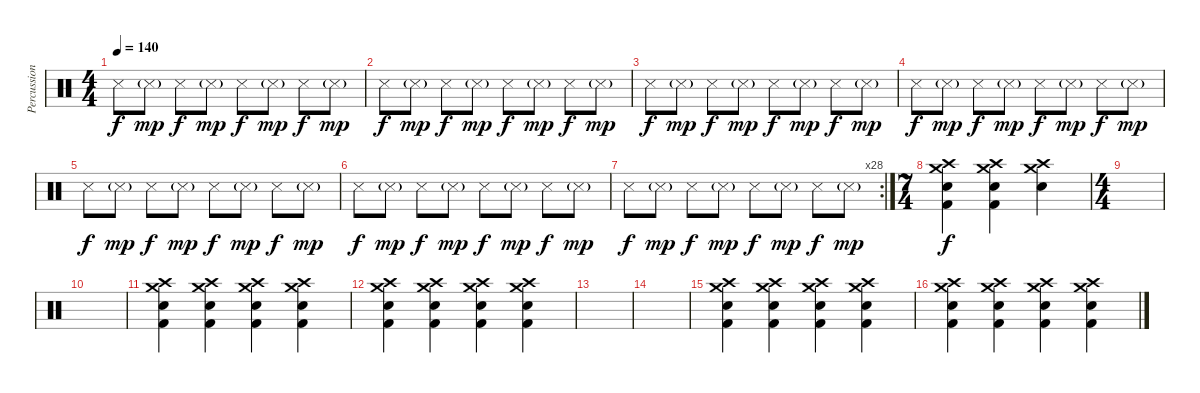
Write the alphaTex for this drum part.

\track ("Percussion" "Percussion") {instrument percussion}
\staff {score}
\articulation defaults
\ts (4 4)
\tempo 140
\clef neutral
\ks c "Snare (side stick) 3".8{dy f} "Snare (side stick) 3"{g}.8{dy mp} "Snare (side stick) 3".8{dy f} "Snare (side stick) 3"{g}.8{dy mp} "Snare (side stick) 3".8{dy f} "Snare (side stick) 3"{g}.8{dy mp} "Snare (side stick) 3".8{dy f} "Snare (side stick) 3"{g}.8{dy mp}
|
"Snare (side stick) 3".8{dy f} "Snare (side stick) 3"{g}.8{dy mp} "Snare (side stick) 3".8{dy f} "Snare (side stick) 3"{g}.8{dy mp} "Snare (side stick) 3".8{dy f} "Snare (side stick) 3"{g}.8{dy mp} "Snare (side stick) 3".8{dy f} "Snare (side stick) 3"{g}.8{dy mp} |
"Snare (side stick) 3".8{dy f} "Snare (side stick) 3"{g}.8{dy mp} "Snare (side stick) 3".8{dy f} "Snare (side stick) 3"{g}.8{dy mp} "Snare (side stick) 3".8{dy f} "Snare (side stick) 3"{g}.8{dy mp} "Snare (side stick) 3".8{dy f} "Snare (side stick) 3"{g}.8{dy mp} |
"Snare (side stick) 3".8{dy f} "Snare (side stick) 3"{g}.8{dy mp} "Snare (side stick) 3".8{dy f} "Snare (side stick) 3"{g}.8{dy mp} "Snare (side stick) 3".8{dy f} "Snare (side stick) 3"{g}.8{dy mp} "Snare (side stick) 3".8{dy f} "Snare (side stick) 3"{g}.8{dy mp} |
"Snare (side stick) 3".8{dy f} "Snare (side stick) 3"{g}.8{dy mp} "Snare (side stick) 3".8{dy f} "Snare (side stick) 3"{g}.8{dy mp} "Snare (side stick) 3".8{dy f} "Snare (side stick) 3"{g}.8{dy mp} "Snare (side stick) 3".8{dy f} "Snare (side stick) 3"{g}.8{dy mp} |
"Snare (side stick) 3".8{dy f} "Snare (side stick) 3"{g}.8{dy mp} "Snare (side stick) 3".8{dy f} "Snare (side stick) 3"{g}.8{dy mp} "Snare (side stick) 3".8{dy f} "Snare (side stick) 3"{g}.8{dy mp} "Snare (side stick) 3".8{dy f} "Snare (side stick) 3"{g}.8{dy mp} |
\rc 28 "Snare (side stick) 3".8{dy f} "Snare (side stick) 3"{g}.8{dy mp} "Snare (side stick) 3".8{dy f} "Snare (side stick) 3"{g}.8{dy mp} "Snare (side stick) 3".8{dy f} "Snare (side stick) 3"{g}.8{dy mp} "Snare (side stick) 3".8{dy f} "Snare (side stick) 3"{g}.8{dy mp}
|
\ts (7 4)
("Crash medium (hit)" "Crash high (hit)" "Electric Snare (hit)" "Kick (hit) 2").4{dy f} ("Crash medium (hit)" "Crash high (hit)" "Electric Snare (hit)" "Kick (hit) 2").4 ("Crash medium (hit)" "Crash high (hit)" "Electric Snare (hit)").4 |
\ts (4 4)
|
|
("Crash medium (hit)" "Crash high (hit)" "Electric Snare (hit)" "Kick (hit) 2").4 ("Crash medium (hit)" "Crash high (hit)" "Electric Snare (hit)" "Kick (hit) 2").4 ("Crash medium (hit)" "Crash high (hit)" "Electric Snare (hit)" "Kick (hit) 2").4 ("Crash medium (hit)" "Crash high (hit)" "Electric Snare (hit)" "Kick (hit) 2").4 |
("Crash medium (hit)" "Crash high (hit)" "Electric Snare (hit)" "Kick (hit) 2").4 ("Crash medium (hit)" "Crash high (hit)" "Electric Snare (hit)" "Kick (hit) 2").4 ("Crash medium (hit)" "Crash high (hit)" "Electric Snare (hit)" "Kick (hit) 2").4 ("Crash medium (hit)" "Crash high (hit)" "Electric Snare (hit)" "Kick (hit) 2").4 |
|
|
("Crash medium (hit)" "Crash high (hit)" "Electric Snare (hit)" "Kick (hit) 2").4 ("Crash medium (hit)" "Crash high (hit)" "Electric Snare (hit)" "Kick (hit) 2").4 ("Crash medium (hit)" "Crash high (hit)" "Electric Snare (hit)" "Kick (hit) 2").4 ("Crash medium (hit)" "Crash high (hit)" "Electric Snare (hit)" "Kick (hit) 2").4 |
("Crash medium (hit)" "Crash high (hit)" "Electric Snare (hit)" "Kick (hit) 2").4 ("Crash medium (hit)" "Crash high (hit)" "Electric Snare (hit)" "Kick (hit) 2").4 ("Crash medium (hit)" "Crash high (hit)" "Electric Snare (hit)" "Kick (hit) 2").4 ("Crash medium (hit)" "Crash high (hit)" "Electric Snare (hit)" "Kick (hit) 2").4
